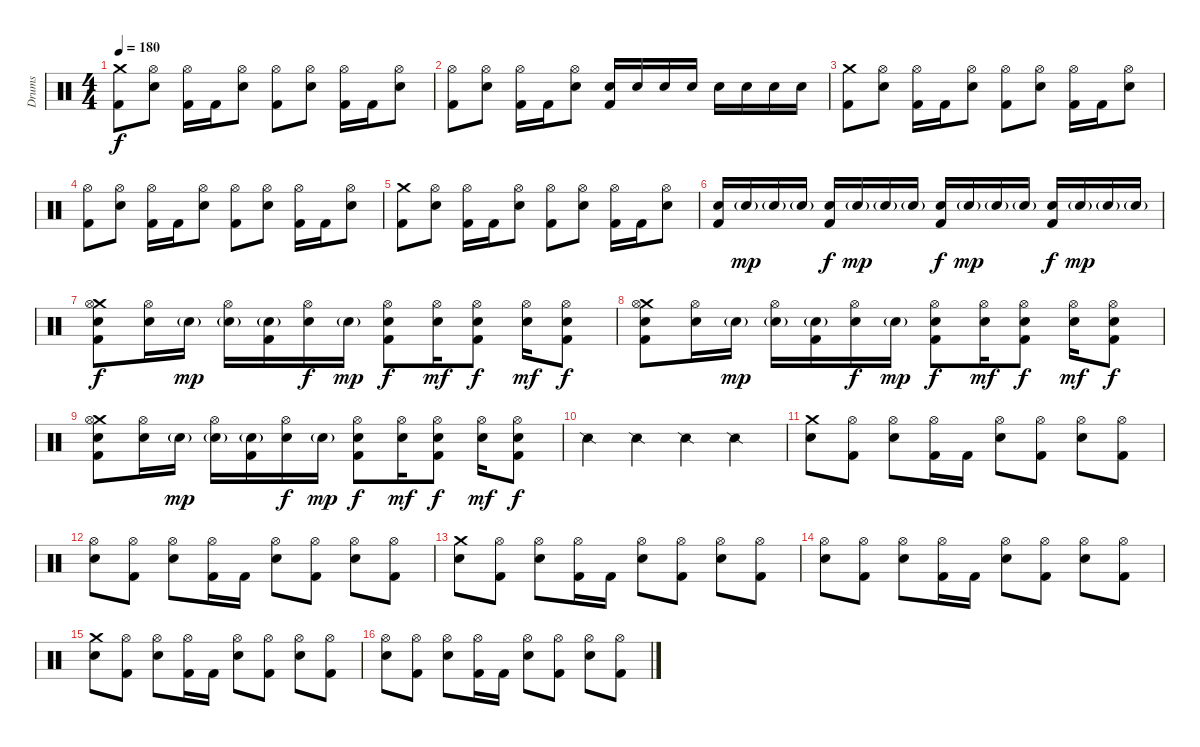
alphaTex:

\track ("Drums" "Drums") {instrument percussion}
\staff {score}
\articulation defaults
\ts (4 4)
\tempo 180
\clef neutral
\ks c
("Crash medium (hit)" "Kick (hit) 2").8{dy f} ("Hi-Hat (open)" "Electric Snare (hit)").8 ("Hi-Hat (open)" "Kick (hit) 2").16 "Kick (hit) 2".16 ("Hi-Hat (open)" "Electric Snare (hit)").8 ("Hi-Hat (open)" "Kick (hit) 2").8 ("Hi-Hat (open)" "Electric Snare (hit)").8 ("Hi-Hat (open)" "Kick (hit) 2").16 "Kick (hit) 2".16 ("Hi-Hat (open)" "Electric Snare (hit)").8 |
("Hi-Hat (open)" "Kick (hit) 2").8 ("Hi-Hat (open)" "Electric Snare (hit)").8 ("Hi-Hat (open)" "Kick (hit) 2").16 "Kick (hit) 2".16 ("Hi-Hat (open)" "Electric Snare (hit)").8 ("Electric Snare (hit)" "Kick (hit) 2").16 "Electric Snare (hit)".16 "Electric Snare (hit)".16 "Electric Snare (hit)".16 "Electric Snare (hit)".16 "Electric Snare (hit)".16 "Electric Snare (hit)".16 "Electric Snare (hit)".16 |
("Crash medium (hit)" "Kick (hit) 2").8 ("Hi-Hat (open)" "Electric Snare (hit)").8 ("Hi-Hat (open)" "Kick (hit) 2").16 "Kick (hit) 2".16 ("Hi-Hat (open)" "Electric Snare (hit)").8 ("Hi-Hat (open)" "Kick (hit) 2").8 ("Hi-Hat (open)" "Electric Snare (hit)").8 ("Hi-Hat (open)" "Kick (hit) 2").16 "Kick (hit) 2".16 ("Hi-Hat (open)" "Electric Snare (hit)").8 |
("Hi-Hat (open)" "Kick (hit) 2").8 ("Hi-Hat (open)" "Electric Snare (hit)").8 ("Hi-Hat (open)" "Kick (hit) 2").16 "Kick (hit) 2".16 ("Hi-Hat (open)" "Electric Snare (hit)").8 ("Hi-Hat (open)" "Kick (hit) 2").8 ("Hi-Hat (open)" "Electric Snare (hit)").8 ("Hi-Hat (open)" "Kick (hit) 2").16 "Kick (hit) 2".16 ("Hi-Hat (open)" "Electric Snare (hit)").8 |
("Crash medium (hit)" "Kick (hit) 2").8 ("Hi-Hat (open)" "Electric Snare (hit)").8 ("Hi-Hat (open)" "Kick (hit) 2").16 "Kick (hit) 2".16 ("Hi-Hat (open)" "Electric Snare (hit)").8 ("Hi-Hat (open)" "Kick (hit) 2").8 ("Hi-Hat (open)" "Electric Snare (hit)").8 ("Hi-Hat (open)" "Kick (hit) 2").16 "Kick (hit) 2".16 ("Hi-Hat (open)" "Electric Snare (hit)").8 |
("Electric Snare (hit)" "Kick (hit) 2").16 "Electric Snare (hit)"{g}.16{dy mp} "Electric Snare (hit)"{g}.16 "Electric Snare (hit)"{g}.16 ("Electric Snare (hit)" "Kick (hit) 2").16{dy f} "Electric Snare (hit)"{g}.16{dy mp} "Electric Snare (hit)"{g}.16 "Electric Snare (hit)"{g}.16 ("Electric Snare (hit)" "Kick (hit) 2").16{dy f} "Electric Snare (hit)"{g}.16{dy mp} "Electric Snare (hit)"{g}.16 "Electric Snare (hit)"{g}.16 ("Electric Snare (hit)" "Kick (hit) 2").16{dy f} "Electric Snare (hit)"{g}.16{dy mp} "Electric Snare (hit)"{g}.16 "Electric Snare (hit)"{g}.16 |
("Crash medium (hit)" "Hi-Hat (open)" "Electric Snare (hit)" "Kick (hit) 2").8{dy f} ("Hi-Hat (open)" "Electric Snare (hit)").16 "Electric Snare (hit)"{g}.16{dy mp} ("Hi-Hat (open)" "Electric Snare (hit)"{g}).16 ("Electric Snare (hit)"{g} "Kick (hit) 2").16 ("Hi-Hat (open)" "Electric Snare (hit)").16{dy f} "Electric Snare (hit)"{g}.16{dy mp} ("Hi-Hat (open)" "Electric Snare (hit)" "Kick (hit) 2").8{dy f} ("Hi-Hat (open)" "Electric Snare (hit)").16{dy mf} ("Hi-Hat (open)" "Electric Snare (hit)" "Kick (hit) 2").8{dy f} ("Hi-Hat (open)" "Electric Snare (hit)").16{dy mf} ("Hi-Hat (open)" "Electric Snare (hit)" "Kick (hit) 2").8{dy f} |
("Crash medium (hit)" "Hi-Hat (open)" "Electric Snare (hit)" "Kick (hit) 2").8 ("Hi-Hat (open)" "Electric Snare (hit)").16 "Electric Snare (hit)"{g}.16{dy mp} ("Hi-Hat (open)" "Electric Snare (hit)"{g}).16 ("Electric Snare (hit)"{g} "Kick (hit) 2").16 ("Hi-Hat (open)" "Electric Snare (hit)").16{dy f} "Electric Snare (hit)"{g}.16{dy mp} ("Hi-Hat (open)" "Electric Snare (hit)" "Kick (hit) 2").8{dy f} ("Hi-Hat (open)" "Electric Snare (hit)").16{dy mf} ("Hi-Hat (open)" "Electric Snare (hit)" "Kick (hit) 2").8{dy f} ("Hi-Hat (open)" "Electric Snare (hit)").16{dy mf} ("Hi-Hat (open)" "Electric Snare (hit)" "Kick (hit) 2").8{dy f} |
("Crash medium (hit)" "Hi-Hat (open)" "Electric Snare (hit)" "Kick (hit) 2").8 ("Hi-Hat (open)" "Electric Snare (hit)").16 "Electric Snare (hit)"{g}.16{dy mp} ("Hi-Hat (open)" "Electric Snare (hit)"{g}).16 ("Electric Snare (hit)"{g} "Kick (hit) 2").16 ("Hi-Hat (open)" "Electric Snare (hit)").16{dy f} "Electric Snare (hit)"{g}.16{dy mp} ("Hi-Hat (open)" "Electric Snare (hit)" "Kick (hit) 2").8{dy f} ("Hi-Hat (open)" "Electric Snare (hit)").16{dy mf} ("Hi-Hat (open)" "Electric Snare (hit)" "Kick (hit) 2").8{dy f} ("Hi-Hat (open)" "Electric Snare (hit)").16{dy mf} ("Hi-Hat (open)" "Electric Snare (hit)" "Kick (hit) 2").8{dy f} |
"Snare (side stick) 2".4 "Snare (side stick) 2".4 "Snare (side stick) 2".4 "Snare (side stick) 2".4 |
("Crash medium (hit)" "Electric Snare (hit)").8 ("Hi-Hat (open)" "Kick (hit) 2").8 ("Hi-Hat (open)" "Electric Snare (hit)").8 ("Hi-Hat (open)" "Kick (hit) 2").16 "Kick (hit) 2".16 ("Hi-Hat (open)" "Electric Snare (hit)").8 ("Hi-Hat (open)" "Kick (hit) 2").8 ("Hi-Hat (open)" "Electric Snare (hit)").8 ("Hi-Hat (open)" "Kick (hit) 2").8 |
("Hi-Hat (open)" "Electric Snare (hit)").8 ("Hi-Hat (open)" "Kick (hit) 2").8 ("Hi-Hat (open)" "Electric Snare (hit)").8 ("Hi-Hat (open)" "Kick (hit) 2").16 "Kick (hit) 2".16 ("Hi-Hat (open)" "Electric Snare (hit)").8 ("Hi-Hat (open)" "Kick (hit) 2").8 ("Hi-Hat (open)" "Electric Snare (hit)").8 ("Hi-Hat (open)" "Kick (hit) 2").8 |
("Crash medium (hit)" "Electric Snare (hit)").8 ("Hi-Hat (open)" "Kick (hit) 2").8 ("Hi-Hat (open)" "Electric Snare (hit)").8 ("Hi-Hat (open)" "Kick (hit) 2").16 "Kick (hit) 2".16 ("Hi-Hat (open)" "Electric Snare (hit)").8 ("Hi-Hat (open)" "Kick (hit) 2").8 ("Hi-Hat (open)" "Electric Snare (hit)").8 ("Hi-Hat (open)" "Kick (hit) 2").8 |
("Hi-Hat (open)" "Electric Snare (hit)").8 ("Hi-Hat (open)" "Kick (hit) 2").8 ("Hi-Hat (open)" "Electric Snare (hit)").8 ("Hi-Hat (open)" "Kick (hit) 2").16 "Kick (hit) 2".16 ("Hi-Hat (open)" "Electric Snare (hit)").8 ("Hi-Hat (open)" "Kick (hit) 2").8 ("Hi-Hat (open)" "Electric Snare (hit)").8 ("Hi-Hat (open)" "Kick (hit) 2").8 |
("Crash medium (hit)" "Electric Snare (hit)").8 ("Hi-Hat (open)" "Kick (hit) 2").8 ("Hi-Hat (open)" "Electric Snare (hit)").8 ("Hi-Hat (open)" "Kick (hit) 2").16 "Kick (hit) 2".16 ("Hi-Hat (open)" "Electric Snare (hit)").8 ("Hi-Hat (open)" "Kick (hit) 2").8 ("Hi-Hat (open)" "Electric Snare (hit)").8 ("Hi-Hat (open)" "Kick (hit) 2").8 |
("Hi-Hat (open)" "Electric Snare (hit)").8 ("Hi-Hat (open)" "Kick (hit) 2").8 ("Hi-Hat (open)" "Electric Snare (hit)").8 ("Hi-Hat (open)" "Kick (hit) 2").16 "Kick (hit) 2".16 ("Hi-Hat (open)" "Electric Snare (hit)").8 ("Hi-Hat (open)" "Kick (hit) 2").8 ("Hi-Hat (open)" "Electric Snare (hit)").8 ("Hi-Hat (open)" "Kick (hit) 2").8
